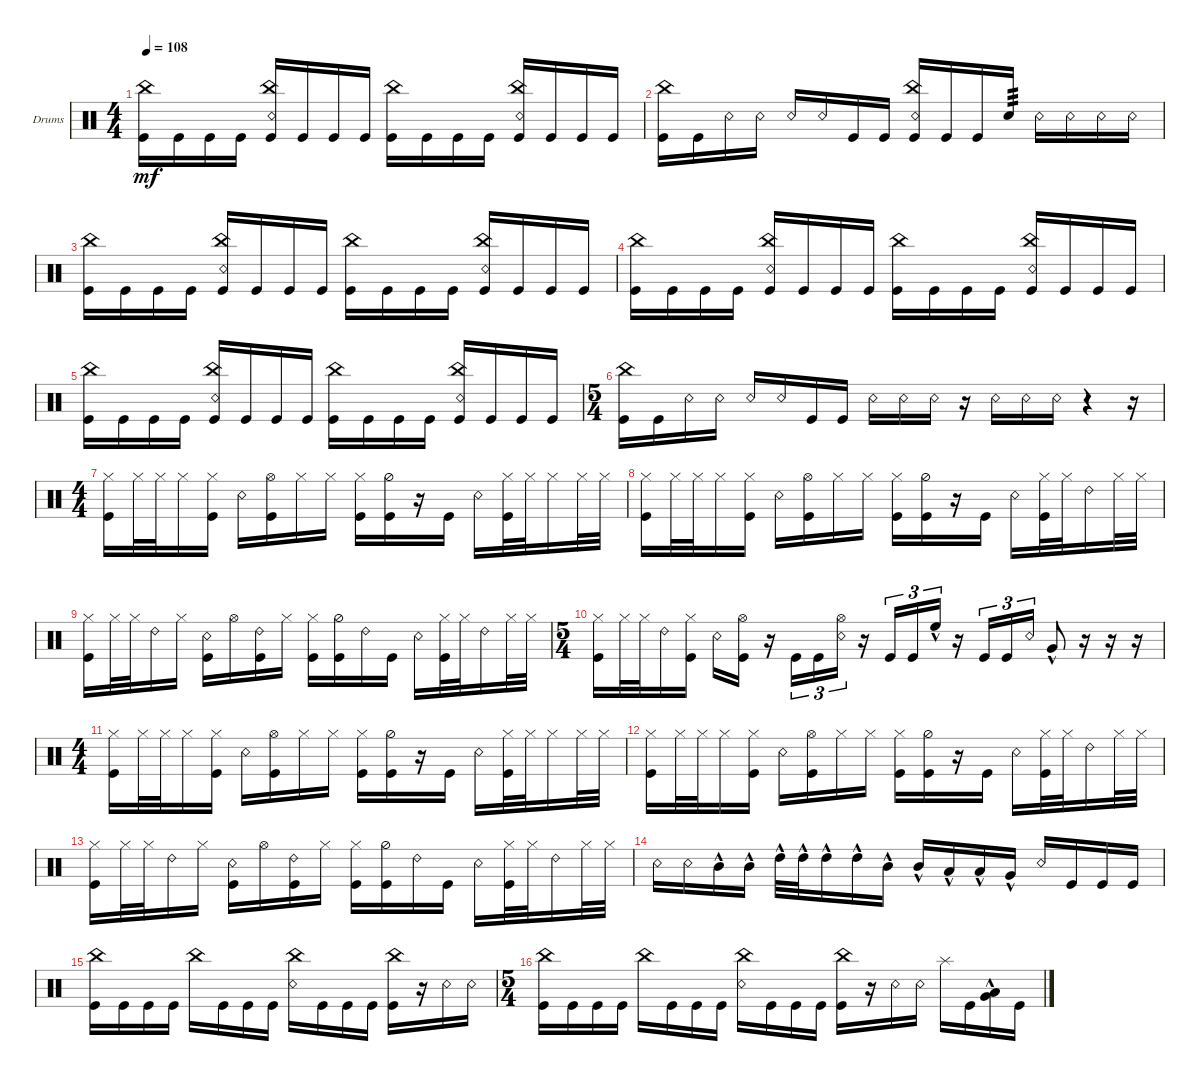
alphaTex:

\defaultSystemsLayout 4
\bracketExtendMode groupsimilarinstruments
\firstSystemTrackNameOrientation horizontal
\otherSystemsTrackNameOrientation horizontal
\track ("Drumkit" "Drums") {solo instrument percussion}
\staff {score}
\articulation defaults
\ts (4 4)
\tempo 108
\clef neutral
\ks c
("Kick (hit)" "China (hit)").16{dy mf} "Kick (hit)".16 "Kick (hit)".16 "Kick (hit)".16 ("Kick (hit)" "China (hit)" "Snare (rim shot)").16 "Kick (hit)".16 "Kick (hit)".16 "Kick (hit)".16 ("Kick (hit)" "China (hit)").16 "Kick (hit)".16 "Kick (hit)".16 "Kick (hit)".16 ("Kick (hit)" "China (hit)" "Snare (rim shot)").16 "Kick (hit)".16 "Kick (hit)".16 "Kick (hit)".16 |
("Kick (hit)" "China (hit)").16 "Kick (hit)".16 "Snare (rim shot)".16 "Snare (rim shot)".16 "Snare (rim shot)".16 "Snare (rim shot)".16 "Kick (hit)".16 "Kick (hit)".16 ("Kick (hit)" "Snare (rim shot)" "China (hit)").16 "Kick (hit)".16 "Kick (hit)".16 "Snare (hit) 2".16{tp 3} "Snare (rim shot)".16 "Snare (rim shot)".16 "Snare (rim shot)".16 "Snare (rim shot)".16 |
("Kick (hit)" "China (hit)").16 "Kick (hit)".16 "Kick (hit)".16 "Kick (hit)".16 ("Kick (hit)" "China (hit)" "Snare (rim shot)").16 "Kick (hit)".16 "Kick (hit)".16 "Kick (hit)".16 ("Kick (hit)" "China (hit)").16 "Kick (hit)".16 "Kick (hit)".16 "Kick (hit)".16 ("Kick (hit)" "China (hit)" "Snare (rim shot)").16 "Kick (hit)".16 "Kick (hit)".16 "Kick (hit)".16 |
("Kick (hit)" "China (hit)").16 "Kick (hit)".16 "Kick (hit)".16 "Kick (hit)".16 ("Snare (rim shot)" "China (hit)" "Kick (hit)").16 "Kick (hit)".16 "Kick (hit)".16 "Kick (hit)".16 ("Kick (hit)" "China (hit)").16 "Kick (hit)".16 "Kick (hit)".16 "Kick (hit)".16 ("Snare (rim shot)" "Kick (hit)" "China (hit)").16 "Kick (hit)".16 "Kick (hit)".16 "Kick (hit)".16 |
("Kick (hit)" "China (hit)").16 "Kick (hit)".16 "Kick (hit)".16 "Kick (hit)".16 ("Kick (hit)" "China (hit)" "Snare (rim shot)").16 "Kick (hit)".16 "Kick (hit)".16 "Kick (hit)".16 ("Kick (hit)" "China (hit)").16 "Kick (hit)".16 "Kick (hit)".16 "Kick (hit)".16 ("Kick (hit)" "China (hit)" "Snare (rim shot)").16 "Kick (hit)".16 "Kick (hit)".16 "Kick (hit)".16 |
\ts (5 4)
("Kick (hit)" "China (hit)").16 "Kick (hit)".16 "Snare (rim shot)".16 "Snare (rim shot)".16 "Snare (rim shot)".16 "Snare (rim shot)".16 "Kick (hit)".16 "Kick (hit)".16 "Snare (rim shot)".16 "Snare (rim shot)".16 "Snare (rim shot)".16 r.16 "Snare (rim shot)".16 "Snare (rim shot)".16 "Snare (rim shot)".16 r.4 r.16 |
\ts (4 4)
("Hi-Hat (closed)" "Kick (hit)").16 "Hi-Hat (closed)".32 "Hi-Hat (closed)".32 "Hi-Hat (closed)".16 ("Kick (hit)" "Hi-Hat (closed)").16 "Snare (rim shot)".16 ("Hi-Hat (open)" "Kick (hit)").16 "Hi-Hat (closed)".16 "Hi-Hat (closed)".16 ("Hi-Hat (closed)" "Kick (hit)").16 ("Kick (hit)" "Hi-Hat (half)").16 r.16 "Kick (hit)".16 "Snare (rim shot)".16 ("Kick (hit)" "Hi-Hat (closed)").32 "Hi-Hat (closed)".32 "Hi-Hat (closed)".16 "Hi-Hat (closed)".32 "Hi-Hat (closed)".32 |
("Hi-Hat (closed)" "Kick (hit)").16 "Hi-Hat (closed)".32 "Hi-Hat (closed)".32 "Hi-Hat (closed)".16 ("Kick (hit)" "Hi-Hat (closed)").16 "Snare (rim shot)".16 ("Hi-Hat (open)" "Kick (hit)").16 "Hi-Hat (closed)".16 "Hi-Hat (closed)".16 ("Hi-Hat (closed)" "Kick (hit)").16 ("Kick (hit)" "Hi-Hat (half)").16 r.16 "Kick (hit)".16 "Snare (rim shot)".16 ("Kick (hit)" "Hi-Hat (closed)").32 "Hi-Hat (closed)".32 "Ride (bell) 2".16 "Hi-Hat (closed)".32 "Hi-Hat (closed)".32 |
("Hi-Hat (closed)" "Kick (hit)").16 "Hi-Hat (closed)".32 "Hi-Hat (closed)".32 "Ride (bell) 2".16 "Hi-Hat (closed)".16 ("Snare (rim shot)" "Kick (hit)").16 "Hi-Hat (open)".16 ("Ride (bell) 2" "Kick (hit)").16 "Hi-Hat (closed)".16 ("Hi-Hat (closed)" "Kick (hit)").16 ("Kick (hit)" "Hi-Hat (half)").16 "Ride (bell) 2".16 "Kick (hit)".16 "Snare (rim shot)".16 ("Kick (hit)" "Hi-Hat (closed)").32 "Hi-Hat (closed)".32 "Ride (bell) 2".16 "Hi-Hat (closed)".32 "Hi-Hat (closed)".32 |
\ts (5 4)
("Hi-Hat (closed)" "Kick (hit)").16 "Hi-Hat (closed)".32 "Hi-Hat (closed)".32 "Ride (bell) 2".16 ("Kick (hit)" "Hi-Hat (closed)").16 "Snare (rim shot)".16 ("Hi-Hat (open)" "Kick (hit)").16 r.16 "Kick (hit)".16{tu (3 2)} "Kick (hit)".16{tu (3 2)} ("Snare (rim shot)" "Hi-Hat (open)").16{tu (3 2)} r.16 "Kick (hit)".16{tu (3 2)} "Kick (hit)".16{tu (3 2)} "High Floor Tom (hit)"{hac}.16{tu (3 2)} r.16 "Kick (hit)".16{tu (3 2)} "Kick (hit)".16{tu (3 2)} "Snare (rim shot)".16{tu (3 2)} "Very Low Tom (hit)"{hac}.8 r.16 r.16 r.16 |
\ts (4 4)
("Hi-Hat (closed)" "Kick (hit)").16 "Hi-Hat (closed)".32 "Hi-Hat (closed)".32 "Hi-Hat (closed)".16 ("Kick (hit)" "Hi-Hat (closed)").16 "Snare (rim shot)".16 ("Hi-Hat (open)" "Kick (hit)").16 "Hi-Hat (closed)".16 "Hi-Hat (closed)".16 ("Hi-Hat (closed)" "Kick (hit)").16 ("Kick (hit)" "Hi-Hat (half)").16 r.16 "Kick (hit)".16 "Snare (rim shot)".16 ("Kick (hit)" "Hi-Hat (closed)").32 "Hi-Hat (closed)".32 "Hi-Hat (closed)".16 "Hi-Hat (closed)".32 "Hi-Hat (closed)".32 |
("Hi-Hat (closed)" "Kick (hit)").16 "Hi-Hat (closed)".32 "Hi-Hat (closed)".32 "Hi-Hat (closed)".16 ("Kick (hit)" "Hi-Hat (closed)").16 "Snare (rim shot)".16 ("Hi-Hat (open)" "Kick (hit)").16 "Hi-Hat (closed)".16 "Hi-Hat (closed)".16 ("Hi-Hat (closed)" "Kick (hit)").16 ("Kick (hit)" "Hi-Hat (half)").16 r.16 "Kick (hit)".16 "Snare (rim shot)".16 ("Kick (hit)" "Hi-Hat (closed)").32 "Hi-Hat (closed)".32 "Ride (bell) 2".16 "Hi-Hat (closed)".32 "Hi-Hat (closed)".32 |
("Hi-Hat (closed)" "Kick (hit)").16 "Hi-Hat (closed)".32 "Hi-Hat (closed)".32 "Ride (bell) 2".16 "Hi-Hat (closed)".16 ("Snare (rim shot)" "Kick (hit)").16 "Hi-Hat (open)".16 ("Ride (bell) 2" "Kick (hit)").16 "Hi-Hat (closed)".16 ("Hi-Hat (closed)" "Kick (hit)").16 ("Kick (hit)" "Hi-Hat (half)").16 "Ride (bell) 2".16 "Kick (hit)".16 "Snare (rim shot)".16 ("Kick (hit)" "Hi-Hat (closed)").32 "Hi-Hat (closed)".32 "Ride (bell) 2".16 "Hi-Hat (closed)".32 "Hi-Hat (closed)".32 |
"Snare (rim shot)".16 "Snare (rim shot)".16 "Mid Tom (hit)"{hac}.16 "Mid Tom (hit)"{hac}.16 "High Tom (hit)"{hac}.32 "High Tom (hit)"{hac}.32 "High Tom (hit)"{hac}.16 "High Tom (hit)"{hac}.16 "Mid Tom (hit)"{hac}.16 "Mid Tom (hit)"{hac}.16 "Low Tom (hit)"{hac}.16 "Low Tom (hit)"{hac}.16 "Very Low Tom (hit)"{hac}.16 "Snare (rim shot)".16 "Kick (hit)".16 "Kick (hit)".16 "Kick (hit)".16 |
("Kick (hit)" "China (hit)").16 "Kick (hit)".16 "Kick (hit)".16 "Kick (hit)".16 "China (hit)".16 "Kick (hit)".16 "Kick (hit)".16 "Kick (hit)".16 ("Snare (rim shot)" "China (hit)").16 "Kick (hit)".16 "Kick (hit)".16 "Kick (hit)".16 ("Kick (hit)" "China (hit)").16 r.16 "Snare (rim shot)".16 "Snare (rim shot)".16 |
\ts (5 4)
("Kick (hit)" "China (hit)").16 "Kick (hit)".16 "Kick (hit)".16 "Kick (hit)".16 "China (hit)".16 "Kick (hit)".16 "Kick (hit)".16 "Kick (hit)".16 ("Snare (rim shot)" "China (hit)").16 "Kick (hit)".16 "Kick (hit)".16 "Kick (hit)".16 ("Kick (hit)" "China (hit)").16 r.16 "Snare (rim shot)".16 "Snare (rim shot)".16 "Splash (hit)".16 "Kick (hit)".16 ("Very Low Tom (hit)"{hac} "Low Tom (hit)"{hac}).16 "Kick (hit)".16
